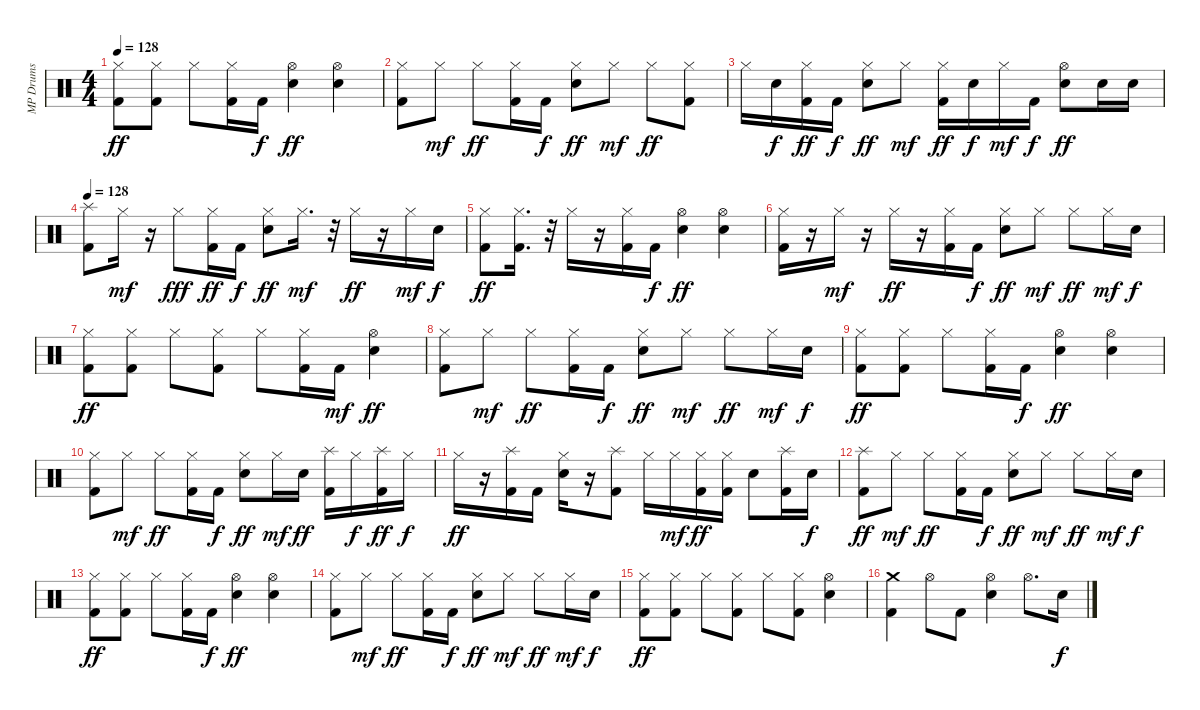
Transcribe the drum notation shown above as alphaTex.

\track ("MP Drums" "MP Drums") {instrument percussion}
\staff {score}
\articulation defaults
\ts (4 4)
\tempo 128
\clef neutral
\ks c
("Hi-Hat (closed)" "Kick (hit) 2").8{dy ff} ("Hi-Hat (closed)" "Kick (hit) 2").8 "Hi-Hat (closed)".8 ("Hi-Hat (closed)" "Kick (hit) 2").16 "Kick (hit) 2".16{dy f} ("Hi-Hat (open)" "Snare (hit) 2").4{dy ff} ("Hi-Hat (open)" "Snare (hit) 2").4 |
("Hi-Hat (closed)" "Kick (hit) 2").8 "Hi-Hat (closed)".8{dy mf} "Hi-Hat (closed)".8{dy ff} ("Hi-Hat (closed)" "Kick (hit) 2").16 "Kick (hit) 2".16{dy f} ("Hi-Hat (closed)" "Snare (hit) 2").8{dy ff} "Hi-Hat (closed)".8{dy mf} "Hi-Hat (closed)".8{dy ff} ("Hi-Hat (closed)" "Kick (hit) 2").8 |
"Hi-Hat (closed)".16 "Snare (hit) 2".16{dy f} ("Hi-Hat (closed)" "Kick (hit) 2").16{dy ff} "Kick (hit) 2".16{dy f} ("Hi-Hat (closed)" "Snare (hit) 2").8{dy ff} "Hi-Hat (closed)".8{dy mf} ("Hi-Hat (closed)" "Kick (hit) 2").16{dy ff} "Snare (hit) 2".16{dy f} "Hi-Hat (closed)".16{dy mf} "Kick (hit) 2".16{dy f} ("Hi-Hat (open)" "Snare (hit) 2").8{dy ff} "Snare (hit) 2".16 "Snare (hit) 2".16 |
\tempo 128
("Splash (hit)" "Kick (hit) 2").8 "Hi-Hat (closed)".16{dy mf} r.16 "Hi-Hat (closed)".8{dy fff} ("Hi-Hat (closed)" "Kick (hit) 2").16{dy ff} "Kick (hit) 2".16{dy f} ("Hi-Hat (closed)" "Snare (hit) 2").8{dy ff} "Hi-Hat (closed)".16{d dy mf} r.32 "Hi-Hat (closed)".16{dy ff} r.16 "Hi-Hat (closed)".16{dy mf} "Snare (hit) 2".16{dy f} |
("Hi-Hat (closed)" "Kick (hit) 2").8{dy ff} ("Hi-Hat (closed)" "Kick (hit) 2").16{d} r.32 "Hi-Hat (closed)".16 r.16 ("Hi-Hat (closed)" "Kick (hit) 2").16 "Kick (hit) 2".16{dy f} ("Hi-Hat (open)" "Snare (hit) 2").4{dy ff} ("Hi-Hat (open)" "Snare (hit) 2").4 |
("Hi-Hat (closed)" "Kick (hit) 2").16 r.16 "Hi-Hat (closed)".16{dy mf} r.16 "Hi-Hat (closed)".16{dy ff} r.16 ("Hi-Hat (closed)" "Kick (hit) 2").16 "Kick (hit) 2".16{dy f} ("Hi-Hat (closed)" "Snare (hit) 2").8{dy ff} "Hi-Hat (closed)".8{dy mf} "Hi-Hat (closed)".8{dy ff} "Hi-Hat (closed)".16{dy mf} "Snare (hit) 2".16{dy f} |
("Hi-Hat (closed)" "Kick (hit) 2").8{dy ff} ("Hi-Hat (closed)" "Kick (hit) 2").8 "Hi-Hat (closed)".8 ("Hi-Hat (closed)" "Kick (hit) 2").8 "Hi-Hat (closed)".8 ("Hi-Hat (closed)" "Kick (hit) 2").16 "Kick (hit) 2".16{dy mf} ("Hi-Hat (open)" "Snare (hit) 2").4{dy ff} |
("Hi-Hat (closed)" "Kick (hit) 2").8 "Hi-Hat (closed)".8{dy mf} "Hi-Hat (closed)".8{dy ff} ("Hi-Hat (closed)" "Kick (hit) 2").16 "Kick (hit) 2".16{dy f} ("Hi-Hat (closed)" "Snare (hit) 2").8{dy ff} "Hi-Hat (closed)".8{dy mf} "Hi-Hat (closed)".8{dy ff} "Hi-Hat (closed)".16{dy mf} "Snare (hit) 2".16{dy f} |
("Hi-Hat (closed)" "Kick (hit) 2").8{dy ff} ("Hi-Hat (closed)" "Kick (hit) 2").8 "Hi-Hat (closed)".8 ("Hi-Hat (closed)" "Kick (hit) 2").16 "Kick (hit) 2".16{dy f} ("Hi-Hat (open)" "Snare (hit) 2").4{dy ff} ("Hi-Hat (open)" "Snare (hit) 2").4 |
("Hi-Hat (closed)" "Kick (hit) 2").8 "Hi-Hat (closed)".8{dy mf} "Hi-Hat (closed)".8{dy ff} ("Hi-Hat (closed)" "Kick (hit) 2").16 "Kick (hit) 2".16{dy f} ("Hi-Hat (closed)" "Snare (hit) 2").8{dy ff} "Hi-Hat (closed)".16{dy mf} "Snare (hit) 2".16{dy ff} ("Splash (hit)" "Kick (hit) 2").16 "Hi-Hat (closed)".16{dy f} ("Splash (hit)" "Kick (hit) 2").16{dy ff} "Hi-Hat (closed)".16{dy f} |
"Hi-Hat (closed)".16{dy ff} r.16 ("Splash (hit)" "Kick (hit) 2").16 "Kick (hit) 2".16 ("Hi-Hat (closed)" "Snare (hit) 2").16 r.16 ("Splash (hit)" "Kick (hit) 2").8 "Hi-Hat (closed)".16 "Hi-Hat (closed)".16{dy mf} ("Hi-Hat (closed)" "Kick (hit) 2").16{dy ff} ("Hi-Hat (closed)" "Kick (hit) 2").16 "Snare (hit) 2".8 ("Splash (hit)" "Kick (hit) 2").16 "Snare (hit) 2".16{dy f} |
("Splash (hit)" "Kick (hit) 2").8{dy ff} "Hi-Hat (closed)".8{dy mf} "Hi-Hat (closed)".8{dy ff} ("Hi-Hat (closed)" "Kick (hit) 2").16 "Kick (hit) 2".16{dy f} ("Hi-Hat (closed)" "Snare (hit) 2").8{dy ff} "Hi-Hat (closed)".8{dy mf} "Hi-Hat (closed)".8{dy ff} "Hi-Hat (closed)".16{dy mf} "Snare (hit) 2".16{dy f} |
("Hi-Hat (closed)" "Kick (hit) 2").8{dy ff} ("Hi-Hat (closed)" "Kick (hit) 2").8 "Hi-Hat (closed)".8 ("Hi-Hat (closed)" "Kick (hit) 2").16 "Kick (hit) 2".16{dy f} ("Hi-Hat (open)" "Snare (hit) 2").4{dy ff} ("Hi-Hat (open)" "Snare (hit) 2").4 |
("Hi-Hat (closed)" "Kick (hit) 2").8 "Hi-Hat (closed)".8{dy mf} "Hi-Hat (closed)".8{dy ff} ("Hi-Hat (closed)" "Kick (hit) 2").16 "Kick (hit) 2".16{dy f} ("Hi-Hat (closed)" "Snare (hit) 2").8{dy ff} "Hi-Hat (closed)".8{dy mf} "Hi-Hat (closed)".8{dy ff} "Hi-Hat (closed)".16{dy mf} "Snare (hit) 2".16{dy f} |
("Hi-Hat (closed)" "Kick (hit) 2").8{dy ff} ("Hi-Hat (closed)" "Kick (hit) 2").8 "Hi-Hat (closed)".8 ("Hi-Hat (closed)" "Kick (hit) 2").8 "Hi-Hat (closed)".8 ("Hi-Hat (closed)" "Kick (hit) 2").8 ("Hi-Hat (open)" "Snare (hit) 2").4 |
("Crash medium (hit)" "Kick (hit) 2").4 "Hi-Hat (open)".8 "Kick (hit) 2".8 ("Hi-Hat (open)" "Snare (hit) 2").4 "Hi-Hat (open)".8{d} "Snare (hit) 2".16{dy f}
